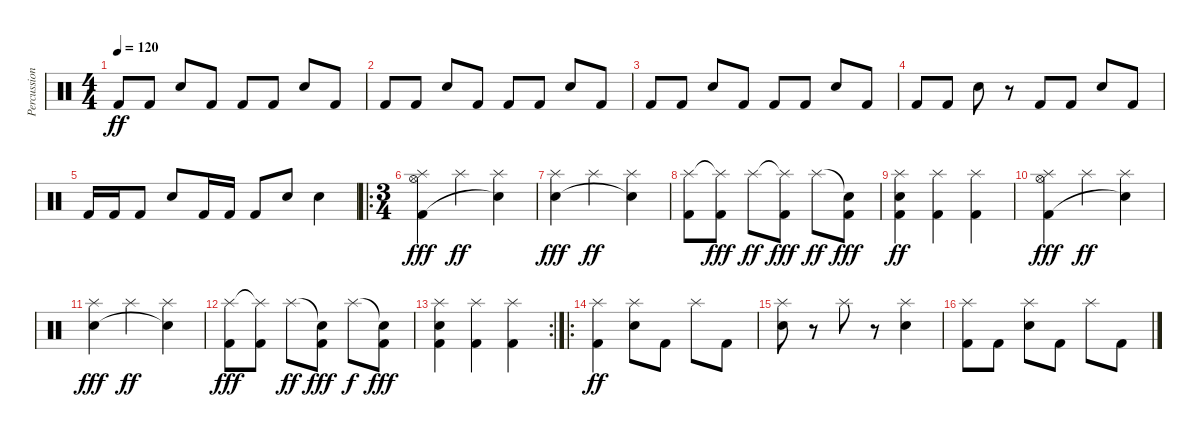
\track ("Percussion" "Percussion") {instrument percussion}
\staff {score}
\articulation defaults
\ts (4 4)
\tempo 120
\clef neutral
\ks c "Kick (hit) 2".8{dy ff} "Kick (hit) 2".8 "Electric Snare (hit)".8 "Kick (hit) 2".8 "Kick (hit) 2".8 "Kick (hit) 2".8 "Electric Snare (hit)".8 "Kick (hit) 2".8
|
"Kick (hit) 2".8 "Kick (hit) 2".8 "Electric Snare (hit)".8 "Kick (hit) 2".8 "Kick (hit) 2".8 "Kick (hit) 2".8 "Electric Snare (hit)".8 "Kick (hit) 2".8 |
"Kick (hit) 2".8 "Kick (hit) 2".8 "Electric Snare (hit)".8 "Kick (hit) 2".8 "Kick (hit) 2".8 "Kick (hit) 2".8 "Electric Snare (hit)".8 "Kick (hit) 2".8 |
"Kick (hit) 2".8 "Kick (hit) 2".8 "Electric Snare (hit)".8 r.8 "Kick (hit) 2".8 "Kick (hit) 2".8 "Electric Snare (hit)".8 "Kick (hit) 2".8 |
"Kick (hit) 2".16 "Kick (hit) 2".16 "Kick (hit) 2".8 "Electric Snare (hit)".8 "Kick (hit) 2".16 "Kick (hit) 2".16 "Kick (hit) 2".8 "Electric Snare (hit)".8 "Electric Snare (hit)".4 |
\ro
\ts (3 4)
("Splash (hit)" "Kick (hit) 2" "Hi-Hat (open)").4{dy fff} "Splash (hit)".4{dy ff} ("Splash (hit)" "Snare (hit)"{t}).4 |
("Splash (hit)" "Electric Snare (hit)").4{dy fff} "Splash (hit)".4{dy ff} ("Splash (hit)" "Snare (hit)"{t}).4 |
("Splash (hit)" "Kick (hit) 2").8 ("Splash (hit)"{t} "Kick (hit) 2").8{dy fff} "Splash (hit)".8{dy ff} ("Splash (hit)"{t} "Kick (hit) 2").8{dy fff} "Splash (hit)".8{dy ff} ("Snare (hit)"{t} "Kick (hit) 2").8{dy fff} |
("Splash (hit)" "Electric Snare (hit)" "Kick (hit) 2").4{dy ff} ("Splash (hit)" "Kick (hit) 2").4 ("Splash (hit)" "Kick (hit) 2").4 |
("Splash (hit)" "Kick (hit) 2" "Hi-Hat (open)").4{dy fff} "Splash (hit)".4{dy ff} ("Splash (hit)" "Snare (hit)"{t}).4 |
("Splash (hit)" "Electric Snare (hit)").4{dy fff} "Splash (hit)".4{dy ff} ("Splash (hit)" "Snare (hit)"{t}).4 |
("Splash (hit)" "Kick (hit) 2").8{dy fff} ("Splash (hit)"{t} "Kick (hit) 2").8 "Splash (hit)".8{dy ff} ("Snare (hit)"{t} "Kick (hit) 2").8{dy fff} "Splash (hit)".8{dy f} ("Snare (hit)"{t} "Kick (hit) 2").8{dy fff} |
\rc 2
("Splash (hit)" "Electric Snare (hit)" "Kick (hit) 2").4 ("Splash (hit)" "Kick (hit) 2").4 ("Splash (hit)" "Kick (hit) 2").4 |
\ro
("Splash (hit)" "Kick (hit) 2").4{dy ff} ("Splash (hit)" "Electric Snare (hit)").8 "Kick (hit) 2".8 "Splash (hit)".8 "Kick (hit) 2".8 |
("Splash (hit)" "Electric Snare (hit)").8 r.8 "Splash (hit)".8 r.8 ("Splash (hit)" "Electric Snare (hit)").4 |
("Splash (hit)" "Kick (hit) 2").8 "Kick (hit) 2".8 ("Splash (hit)" "Electric Snare (hit)").8 "Kick (hit) 2".8 "Splash (hit)".8 "Kick (hit) 2".8
